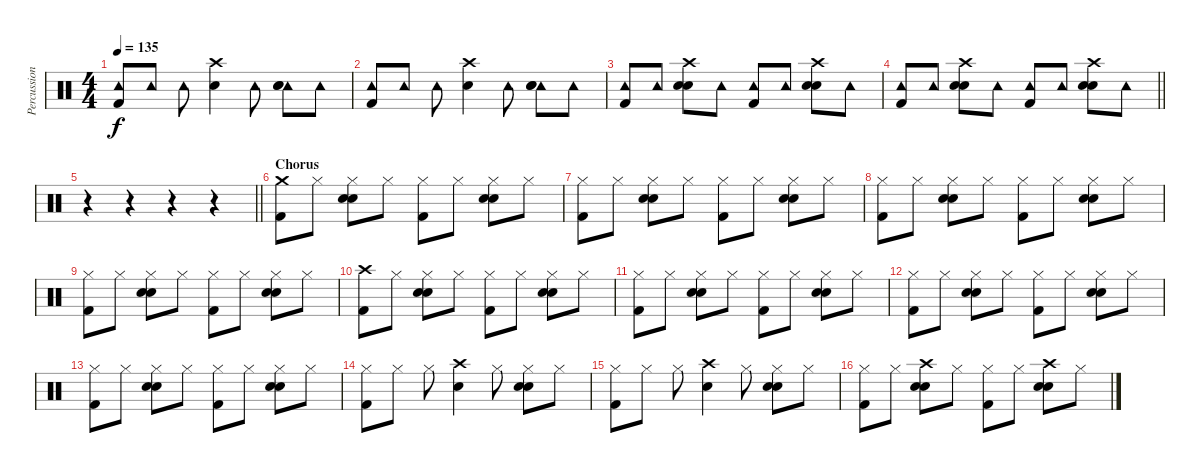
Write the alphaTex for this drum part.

\track ("Percussion" "Percussion") {instrument percussion}
\staff {score}
\articulation defaults
\ts (4 4)
\tempo 135
\clef neutral
\ks c
("Tambourine (hit)" "Kick (hit) 2").8{dy f} "Tambourine (hit)".8 "Tambourine (hit)".8 ("Crash high (hit)" "Snare (hit) 2").4 "Tambourine (hit)".8 ("Tambourine (hit)" "Snare (hit) 2" "Hand Clap (hit)").8 "Tambourine (hit)".8 |
("Tambourine (hit)" "Kick (hit) 2").8 "Tambourine (hit)".8 "Tambourine (hit)".8 ("Crash high (hit)" "Snare (hit) 2").4 "Tambourine (hit)".8 ("Tambourine (hit)" "Snare (hit) 2" "Hand Clap (hit)").8 "Tambourine (hit)".8 |
("Tambourine (hit)" "Kick (hit) 2").8 "Tambourine (hit)".8 ("Crash high (hit)" "Snare (hit) 2" "Hand Clap (hit)").8 "Tambourine (hit)".8 ("Tambourine (hit)" "Kick (hit) 2").8 "Tambourine (hit)".8 ("Crash high (hit)" "Snare (hit) 2" "Hand Clap (hit)").8 "Tambourine (hit)".8 |
\barLineRight lightlight
("Tambourine (hit)" "Kick (hit) 2").8 "Tambourine (hit)".8 ("Crash high (hit)" "Snare (hit) 2" "Hand Clap (hit)").8 "Tambourine (hit)".8 ("Tambourine (hit)" "Kick (hit) 2").8 "Tambourine (hit)".8 ("Crash high (hit)" "Snare (hit) 2" "Hand Clap (hit)").8 "Tambourine (hit)".8 |
\barLineRight lightlight
r.4 r.4 r.4 r.4 |
\section ("" "Chorus")
("Crash medium (hit)" "Kick (hit) 2").8 "Hi-Hat (closed)".8 ("Hi-Hat (closed)" "Snare (hit) 2" "Hand Clap (hit)").8 "Hi-Hat (closed)".8 ("Hi-Hat (closed)" "Kick (hit) 2").8 "Hi-Hat (closed)".8 ("Hi-Hat (closed)" "Snare (hit) 2" "Hand Clap (hit)").8 "Hi-Hat (closed)".8 |
("Hi-Hat (closed)" "Kick (hit) 2").8 "Hi-Hat (closed)".8 ("Hi-Hat (closed)" "Snare (hit) 2" "Hand Clap (hit)").8 "Hi-Hat (closed)".8 ("Hi-Hat (closed)" "Kick (hit) 2").8 "Hi-Hat (closed)".8 ("Hi-Hat (closed)" "Snare (hit) 2" "Hand Clap (hit)").8 "Hi-Hat (closed)".8 |
("Hi-Hat (closed)" "Kick (hit) 2").8 "Hi-Hat (closed)".8 ("Hi-Hat (closed)" "Snare (hit) 2" "Hand Clap (hit)").8 "Hi-Hat (closed)".8 ("Hi-Hat (closed)" "Kick (hit) 2").8 "Hi-Hat (closed)".8 ("Hi-Hat (closed)" "Snare (hit) 2" "Hand Clap (hit)").8 "Hi-Hat (closed)".8 |
("Hi-Hat (closed)" "Kick (hit) 2").8 "Hi-Hat (closed)".8 ("Hi-Hat (closed)" "Snare (hit) 2" "Hand Clap (hit)").8 "Hi-Hat (closed)".8 ("Hi-Hat (closed)" "Kick (hit) 2").8 "Hi-Hat (closed)".8 ("Hi-Hat (closed)" "Snare (hit) 2" "Hand Clap (hit)").8 "Hi-Hat (closed)".8 |
("Crash high (hit)" "Kick (hit) 2").8 "Hi-Hat (closed)".8 ("Hi-Hat (closed)" "Snare (hit) 2" "Hand Clap (hit)").8 "Hi-Hat (closed)".8 ("Hi-Hat (closed)" "Kick (hit) 2").8 "Hi-Hat (closed)".8 ("Hi-Hat (closed)" "Snare (hit) 2" "Hand Clap (hit)").8 "Hi-Hat (closed)".8 |
("Hi-Hat (closed)" "Kick (hit) 2").8 "Hi-Hat (closed)".8 ("Hi-Hat (closed)" "Snare (hit) 2" "Hand Clap (hit)").8 "Hi-Hat (closed)".8 ("Hi-Hat (closed)" "Kick (hit) 2").8 "Hi-Hat (closed)".8 ("Hi-Hat (closed)" "Snare (hit) 2" "Hand Clap (hit)").8 "Hi-Hat (closed)".8 |
("Hi-Hat (closed)" "Kick (hit) 2").8 "Hi-Hat (closed)".8 ("Hi-Hat (closed)" "Snare (hit) 2" "Hand Clap (hit)").8 "Hi-Hat (closed)".8 ("Hi-Hat (closed)" "Kick (hit) 2").8 "Hi-Hat (closed)".8 ("Hi-Hat (closed)" "Snare (hit) 2" "Hand Clap (hit)").8 "Hi-Hat (closed)".8 |
("Hi-Hat (closed)" "Kick (hit) 2").8 "Hi-Hat (closed)".8 ("Hi-Hat (closed)" "Snare (hit) 2" "Hand Clap (hit)").8 "Hi-Hat (closed)".8 ("Hi-Hat (closed)" "Kick (hit) 2").8 "Hi-Hat (closed)".8 ("Hi-Hat (closed)" "Snare (hit) 2" "Hand Clap (hit)").8 "Hi-Hat (closed)".8 |
("Hi-Hat (closed)" "Kick (hit) 2").8 "Hi-Hat (closed)".8 "Hi-Hat (closed)".8 ("Crash high (hit)" "Snare (hit) 2").4 "Hi-Hat (closed)".8 ("Hi-Hat (closed)" "Snare (hit) 2" "Hand Clap (hit)").8 "Hi-Hat (closed)".8 |
("Hi-Hat (closed)" "Kick (hit) 2").8 "Hi-Hat (closed)".8 "Hi-Hat (closed)".8 ("Crash high (hit)" "Snare (hit) 2").4 "Hi-Hat (closed)".8 ("Hi-Hat (closed)" "Snare (hit) 2" "Hand Clap (hit)").8 "Hi-Hat (closed)".8 |
("Hi-Hat (closed)" "Kick (hit) 2").8 "Hi-Hat (closed)".8 ("Crash high (hit)" "Snare (hit) 2" "Hand Clap (hit)").8 "Hi-Hat (closed)".8 ("Hi-Hat (closed)" "Kick (hit) 2").8 "Hi-Hat (closed)".8 ("Crash high (hit)" "Snare (hit) 2" "Hand Clap (hit)").8 "Hi-Hat (closed)".8
